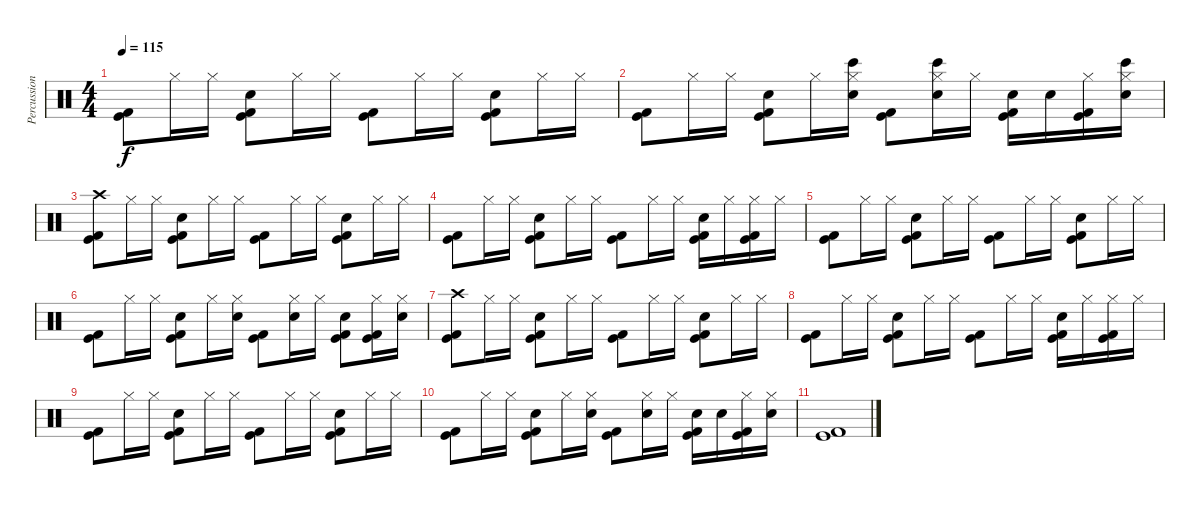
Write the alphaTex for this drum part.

\track ("Percussion" "Percussion") {instrument percussion}
\staff {score}
\articulation defaults
\ts (4 4)
\tempo 115
\clef neutral
\ks c
("Kick (hit)" "Kick (hit) 2").8{dy f} "Hi-Hat (closed)".16 "Hi-Hat (closed)".16 ("Electric Snare (hit)" "Kick (hit)" "Kick (hit) 2").8 "Hi-Hat (closed)".16 "Hi-Hat (closed)".16 ("Kick (hit)" "Kick (hit) 2").8 "Hi-Hat (closed)".16 "Hi-Hat (closed)".16 ("Electric Snare (hit)" "Kick (hit)" "Kick (hit) 2").8 "Hi-Hat (closed)".16 "Hi-Hat (closed)".16 |
("Kick (hit)" "Kick (hit) 2").8 "Hi-Hat (closed)".16 "Hi-Hat (closed)".16 ("Electric Snare (hit)" "Kick (hit)" "Kick (hit) 2").8 "Hi-Hat (closed)".16 ("Hi-Hat (closed)" "Bongo High (hit)" "Electric Snare (hit)").16 ("Kick (hit)" "Kick (hit) 2").8 ("Hi-Hat (closed)" "Bongo High (hit)" "Electric Snare (hit)").16 "Hi-Hat (closed)".16 ("Electric Snare (hit)" "Kick (hit)" "Kick (hit) 2").16 "Electric Snare (hit)".16 ("Hi-Hat (closed)" "Kick (hit)" "Kick (hit) 2").16 ("Hi-Hat (closed)" "Bongo High (hit)" "Electric Snare (hit)").16 |
("Crash high (hit)" "Kick (hit)" "Kick (hit) 2").8 "Hi-Hat (closed)".16 "Hi-Hat (closed)".16 ("Electric Snare (hit)" "Kick (hit)" "Kick (hit) 2").8 "Hi-Hat (closed)".16 "Hi-Hat (closed)".16 ("Kick (hit)" "Kick (hit) 2").8 "Hi-Hat (closed)".16 "Hi-Hat (closed)".16 ("Electric Snare (hit)" "Kick (hit)" "Kick (hit) 2").8 "Hi-Hat (closed)".16 "Hi-Hat (closed)".16 |
("Kick (hit)" "Kick (hit) 2").8 "Hi-Hat (closed)".16 "Hi-Hat (closed)".16 ("Electric Snare (hit)" "Kick (hit)" "Kick (hit) 2").8 "Hi-Hat (closed)".16 "Hi-Hat (closed)".16 ("Kick (hit)" "Kick (hit) 2").8 "Hi-Hat (closed)".16 "Hi-Hat (closed)".16 ("Electric Snare (hit)" "Kick (hit)" "Kick (hit) 2").16 "Hi-Hat (closed)".16 ("Hi-Hat (closed)" "Kick (hit)" "Kick (hit) 2").16 "Hi-Hat (closed)".16 |
("Kick (hit)" "Kick (hit) 2").8 "Hi-Hat (closed)".16 "Hi-Hat (closed)".16 ("Electric Snare (hit)" "Kick (hit)" "Kick (hit) 2").8 "Hi-Hat (closed)".16 "Hi-Hat (closed)".16 ("Kick (hit)" "Kick (hit) 2").8 "Hi-Hat (closed)".16 "Hi-Hat (closed)".16 ("Electric Snare (hit)" "Kick (hit)" "Kick (hit) 2").8 "Hi-Hat (closed)".16 "Hi-Hat (closed)".16 |
("Kick (hit)" "Kick (hit) 2").8 "Hi-Hat (closed)".16 "Hi-Hat (closed)".16 ("Electric Snare (hit)" "Kick (hit)" "Kick (hit) 2").8 "Hi-Hat (closed)".16 ("Hi-Hat (closed)" "Electric Snare (hit)").16 ("Kick (hit)" "Kick (hit) 2").8 ("Hi-Hat (closed)" "Electric Snare (hit)").16 "Hi-Hat (closed)".16 ("Electric Snare (hit)" "Kick (hit)" "Kick (hit) 2").8 ("Hi-Hat (closed)" "Kick (hit)" "Kick (hit) 2").16 ("Hi-Hat (closed)" "Electric Snare (hit)").16 |
("Crash high (hit)" "Kick (hit)" "Kick (hit) 2").8 "Hi-Hat (closed)".16 "Hi-Hat (closed)".16 ("Electric Snare (hit)" "Kick (hit)" "Kick (hit) 2").8 "Hi-Hat (closed)".16 "Hi-Hat (closed)".16 ("Kick (hit)" "Kick (hit) 2").8 "Hi-Hat (closed)".16 "Hi-Hat (closed)".16 ("Electric Snare (hit)" "Kick (hit)" "Kick (hit) 2").8 "Hi-Hat (closed)".16 "Hi-Hat (closed)".16 |
("Kick (hit)" "Kick (hit) 2").8 "Hi-Hat (closed)".16 "Hi-Hat (closed)".16 ("Electric Snare (hit)" "Kick (hit)" "Kick (hit) 2").8 "Hi-Hat (closed)".16 "Hi-Hat (closed)".16 ("Kick (hit)" "Kick (hit) 2").8 "Hi-Hat (closed)".16 "Hi-Hat (closed)".16 ("Electric Snare (hit)" "Kick (hit)" "Kick (hit) 2").16 "Hi-Hat (closed)".16 ("Hi-Hat (closed)" "Kick (hit)" "Kick (hit) 2").16 "Hi-Hat (closed)".16 |
("Kick (hit)" "Kick (hit) 2").8 "Hi-Hat (closed)".16 "Hi-Hat (closed)".16 ("Electric Snare (hit)" "Kick (hit)" "Kick (hit) 2").8 "Hi-Hat (closed)".16 "Hi-Hat (closed)".16 ("Kick (hit)" "Kick (hit) 2").8 "Hi-Hat (closed)".16 "Hi-Hat (closed)".16 ("Electric Snare (hit)" "Kick (hit)" "Kick (hit) 2").8 "Hi-Hat (closed)".16 "Hi-Hat (closed)".16 |
("Kick (hit)" "Kick (hit) 2").8 "Hi-Hat (closed)".16 "Hi-Hat (closed)".16 ("Electric Snare (hit)" "Kick (hit)" "Kick (hit) 2").8 "Hi-Hat (closed)".16 ("Hi-Hat (closed)" "Electric Snare (hit)").16 ("Kick (hit)" "Kick (hit) 2").8 ("Hi-Hat (closed)" "Electric Snare (hit)").16 "Hi-Hat (closed)".16 ("Electric Snare (hit)" "Kick (hit)" "Kick (hit) 2").16 "Electric Snare (hit)".16 ("Hi-Hat (closed)" "Kick (hit)" "Kick (hit) 2").16 ("Hi-Hat (closed)" "Electric Snare (hit)").16 |
("Kick (hit)" "Kick (hit) 2").1
